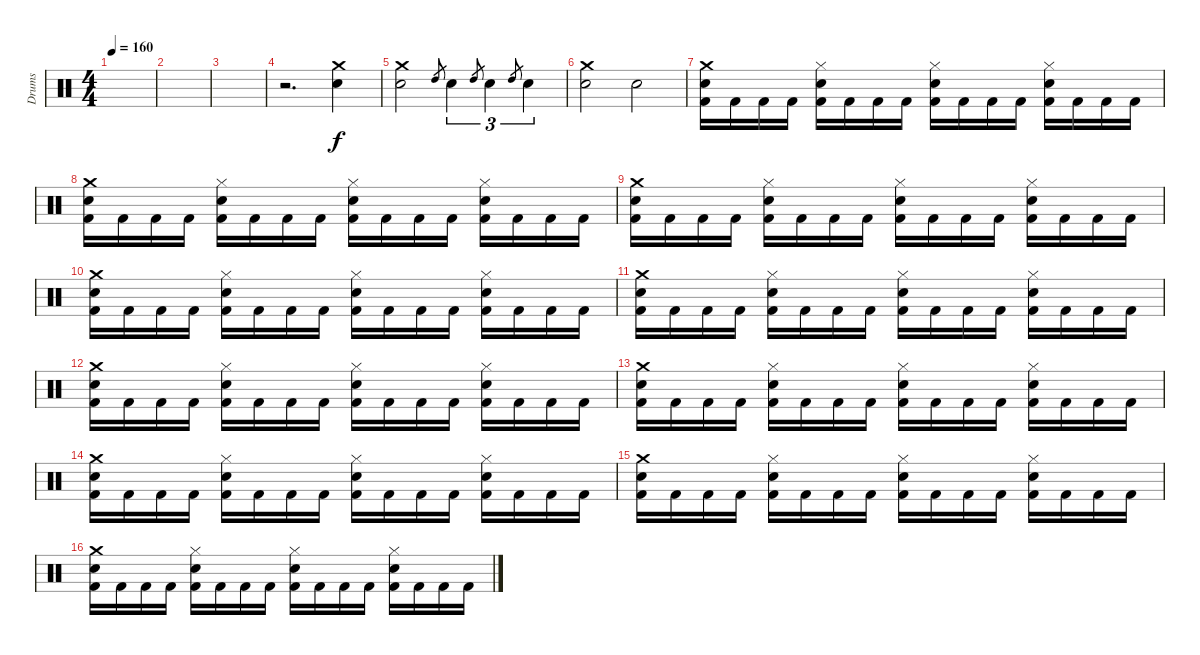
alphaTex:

\track ("Drums" "Drums") {instrument percussion}
\staff {score}
\articulation defaults
\ts (4 4)
\tempo 160
\clef neutral
\ks c
|
|
|
r.2{d} ("Crash medium (hit)" "Snare (hit) 2").4 |
("Crash medium (hit)" "Snare (hit) 2").2 "High Tom (hit)".8{gr} "Snare (hit) 2".4{tu (3 2)} "High Tom (hit)".8{gr} "Snare (hit) 2".4{tu (3 2)} "High Tom (hit)".8{gr} "Snare (hit) 2".4{tu (3 2)} |
("Snare (hit) 2" "Crash medium (hit)").2 "Snare (hit) 2".2 |
("Crash medium (hit)" "Snare (hit) 2" "Kick (hit) 2").16 "Kick (hit) 2".16 "Kick (hit) 2".16 "Kick (hit) 2".16 ("Hi-Hat (closed)" "Snare (hit) 2" "Kick (hit) 2").16 "Kick (hit) 2".16 "Kick (hit) 2".16 "Kick (hit) 2".16 ("Hi-Hat (closed)" "Snare (hit) 2" "Kick (hit) 2").16 "Kick (hit) 2".16 "Kick (hit) 2".16 "Kick (hit) 2".16 ("Hi-Hat (closed)" "Snare (hit) 2" "Kick (hit) 2").16 "Kick (hit) 2".16 "Kick (hit) 2".16 "Kick (hit) 2".16 |
("Crash medium (hit)" "Snare (hit) 2" "Kick (hit) 2").16 "Kick (hit) 2".16 "Kick (hit) 2".16 "Kick (hit) 2".16 ("Hi-Hat (closed)" "Snare (hit) 2" "Kick (hit) 2").16 "Kick (hit) 2".16 "Kick (hit) 2".16 "Kick (hit) 2".16 ("Hi-Hat (closed)" "Snare (hit) 2" "Kick (hit) 2").16 "Kick (hit) 2".16 "Kick (hit) 2".16 "Kick (hit) 2".16 ("Hi-Hat (closed)" "Snare (hit) 2" "Kick (hit) 2").16 "Kick (hit) 2".16 "Kick (hit) 2".16 "Kick (hit) 2".16 |
("Crash medium (hit)" "Snare (hit) 2" "Kick (hit) 2").16 "Kick (hit) 2".16 "Kick (hit) 2".16 "Kick (hit) 2".16 ("Hi-Hat (closed)" "Snare (hit) 2" "Kick (hit) 2").16 "Kick (hit) 2".16 "Kick (hit) 2".16 "Kick (hit) 2".16 ("Hi-Hat (closed)" "Snare (hit) 2" "Kick (hit) 2").16 "Kick (hit) 2".16 "Kick (hit) 2".16 "Kick (hit) 2".16 ("Hi-Hat (closed)" "Snare (hit) 2" "Kick (hit) 2").16 "Kick (hit) 2".16 "Kick (hit) 2".16 "Kick (hit) 2".16 |
("Crash medium (hit)" "Snare (hit) 2" "Kick (hit) 2").16 "Kick (hit) 2".16 "Kick (hit) 2".16 "Kick (hit) 2".16 ("Hi-Hat (closed)" "Snare (hit) 2" "Kick (hit) 2").16 "Kick (hit) 2".16 "Kick (hit) 2".16 "Kick (hit) 2".16 ("Hi-Hat (closed)" "Snare (hit) 2" "Kick (hit) 2").16 "Kick (hit) 2".16 "Kick (hit) 2".16 "Kick (hit) 2".16 ("Hi-Hat (closed)" "Snare (hit) 2" "Kick (hit) 2").16 "Kick (hit) 2".16 "Kick (hit) 2".16 "Kick (hit) 2".16 |
("Crash medium (hit)" "Snare (hit) 2" "Kick (hit) 2").16 "Kick (hit) 2".16 "Kick (hit) 2".16 "Kick (hit) 2".16 ("Hi-Hat (closed)" "Snare (hit) 2" "Kick (hit) 2").16 "Kick (hit) 2".16 "Kick (hit) 2".16 "Kick (hit) 2".16 ("Hi-Hat (closed)" "Snare (hit) 2" "Kick (hit) 2").16 "Kick (hit) 2".16 "Kick (hit) 2".16 "Kick (hit) 2".16 ("Hi-Hat (closed)" "Snare (hit) 2" "Kick (hit) 2").16 "Kick (hit) 2".16 "Kick (hit) 2".16 "Kick (hit) 2".16 |
("Crash medium (hit)" "Snare (hit) 2" "Kick (hit) 2").16 "Kick (hit) 2".16 "Kick (hit) 2".16 "Kick (hit) 2".16 ("Hi-Hat (closed)" "Snare (hit) 2" "Kick (hit) 2").16 "Kick (hit) 2".16 "Kick (hit) 2".16 "Kick (hit) 2".16 ("Hi-Hat (closed)" "Snare (hit) 2" "Kick (hit) 2").16 "Kick (hit) 2".16 "Kick (hit) 2".16 "Kick (hit) 2".16 ("Hi-Hat (closed)" "Snare (hit) 2" "Kick (hit) 2").16 "Kick (hit) 2".16 "Kick (hit) 2".16 "Kick (hit) 2".16 |
("Crash medium (hit)" "Snare (hit) 2" "Kick (hit) 2").16 "Kick (hit) 2".16 "Kick (hit) 2".16 "Kick (hit) 2".16 ("Hi-Hat (closed)" "Snare (hit) 2" "Kick (hit) 2").16 "Kick (hit) 2".16 "Kick (hit) 2".16 "Kick (hit) 2".16 ("Hi-Hat (closed)" "Snare (hit) 2" "Kick (hit) 2").16 "Kick (hit) 2".16 "Kick (hit) 2".16 "Kick (hit) 2".16 ("Hi-Hat (closed)" "Snare (hit) 2" "Kick (hit) 2").16 "Kick (hit) 2".16 "Kick (hit) 2".16 "Kick (hit) 2".16 |
("Crash medium (hit)" "Snare (hit) 2" "Kick (hit) 2").16 "Kick (hit) 2".16 "Kick (hit) 2".16 "Kick (hit) 2".16 ("Hi-Hat (closed)" "Snare (hit) 2" "Kick (hit) 2").16 "Kick (hit) 2".16 "Kick (hit) 2".16 "Kick (hit) 2".16 ("Hi-Hat (closed)" "Snare (hit) 2" "Kick (hit) 2").16 "Kick (hit) 2".16 "Kick (hit) 2".16 "Kick (hit) 2".16 ("Hi-Hat (closed)" "Snare (hit) 2" "Kick (hit) 2").16 "Kick (hit) 2".16 "Kick (hit) 2".16 "Kick (hit) 2".16 |
("Crash medium (hit)" "Snare (hit) 2" "Kick (hit) 2").16 "Kick (hit) 2".16 "Kick (hit) 2".16 "Kick (hit) 2".16 ("Hi-Hat (closed)" "Snare (hit) 2" "Kick (hit) 2").16 "Kick (hit) 2".16 "Kick (hit) 2".16 "Kick (hit) 2".16 ("Hi-Hat (closed)" "Snare (hit) 2" "Kick (hit) 2").16 "Kick (hit) 2".16 "Kick (hit) 2".16 "Kick (hit) 2".16 ("Hi-Hat (closed)" "Snare (hit) 2" "Kick (hit) 2").16 "Kick (hit) 2".16 "Kick (hit) 2".16 "Kick (hit) 2".16 |
("Crash medium (hit)" "Snare (hit) 2" "Kick (hit) 2").16 "Kick (hit) 2".16 "Kick (hit) 2".16 "Kick (hit) 2".16 ("Hi-Hat (closed)" "Snare (hit) 2" "Kick (hit) 2").16 "Kick (hit) 2".16 "Kick (hit) 2".16 "Kick (hit) 2".16 ("Hi-Hat (closed)" "Snare (hit) 2" "Kick (hit) 2").16 "Kick (hit) 2".16 "Kick (hit) 2".16 "Kick (hit) 2".16 ("Hi-Hat (closed)" "Snare (hit) 2" "Kick (hit) 2").16 "Kick (hit) 2".16 "Kick (hit) 2".16 "Kick (hit) 2".16
